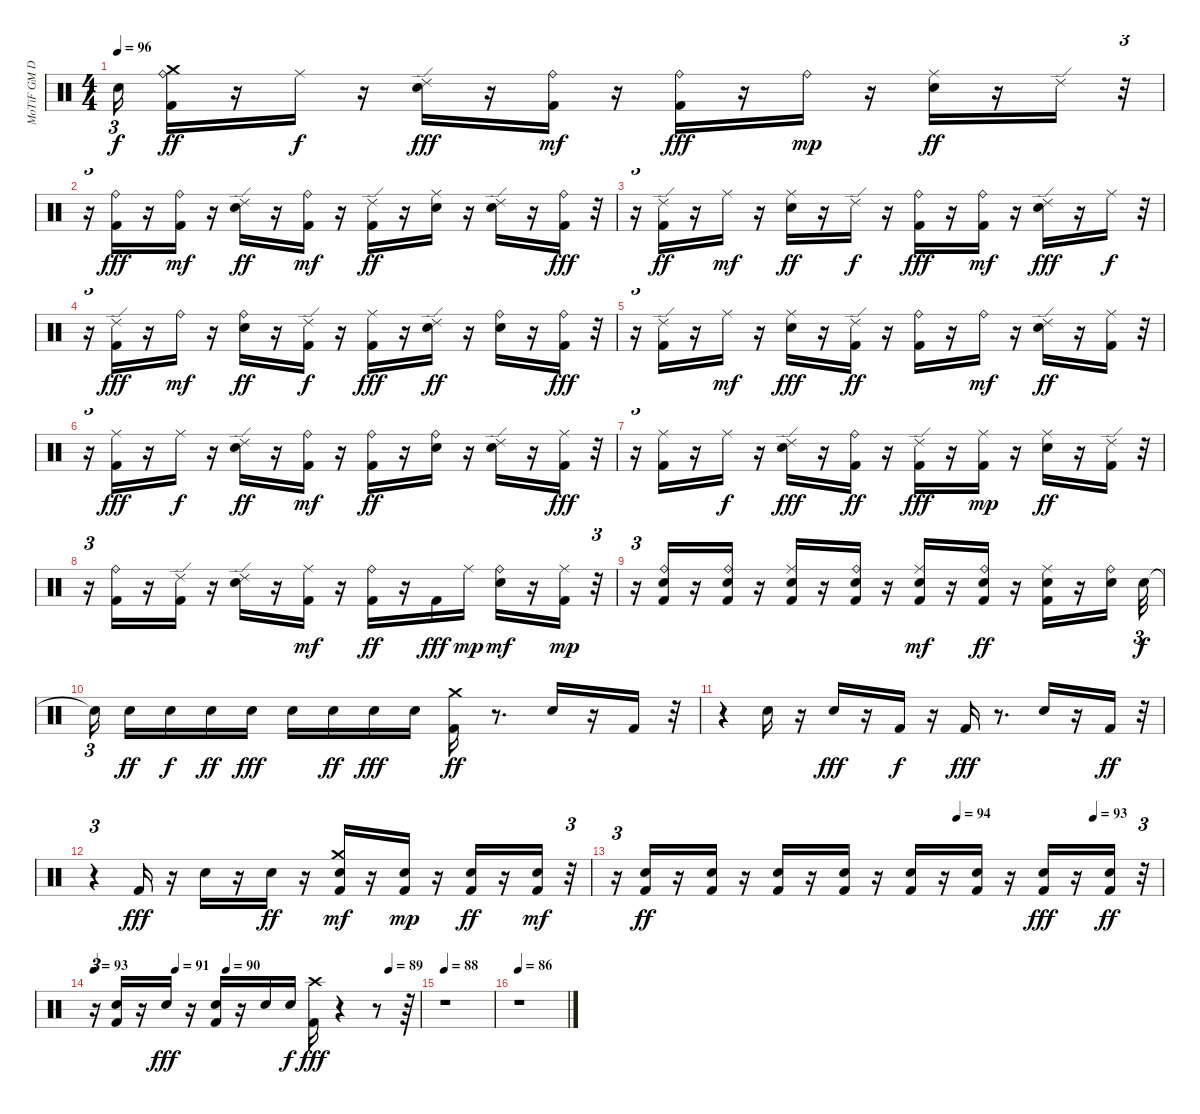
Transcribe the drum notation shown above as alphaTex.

\track ("MoTiF GM Drums" "MoTiF GM D") {instrument percussion}
\staff {score}
\articulation defaults
\ts (4 4)
\tempo 96
\clef neutral
\ks c "Snare (hit)"{t}.16{tu (3 2) dy f}
("Kick (hit) 2" "Ride (bell)" "Crash medium (hit)").16{dy ff} r.16 "Ride (middle)".16{dy f} r.16 ("Electric Snare (hit)" "Ride (edge) 2").16{dy fff} r.16 ("Kick (hit) 2" "Ride (bell)").16{dy mf} r.16 ("Kick (hit) 2" "Ride (bell)").16{dy fff} r.16 "Ride (bell)".16{dy mp} r.16 ("Electric Snare (hit)" "Ride (middle)").16{dy ff} r.16 "Ride (edge) 2".16 r.32{tu (3 2)} |
r.16{tu (3 2)} ("Kick (hit) 2" "Ride (bell)").16{dy fff} r.16 ("Kick (hit) 2" "Ride (bell)").16{dy mf} r.16 ("Electric Snare (hit)" "Ride (edge) 2").16{dy ff} r.16 ("Kick (hit) 2" "Ride (bell)").16{dy mf} r.16 ("Kick (hit) 2" "Ride (edge) 2").16{dy ff} r.16 ("Electric Snare (hit)" "Ride (middle)").16 r.16 ("Electric Snare (hit)" "Ride (edge) 2").16 r.16 ("Kick (hit) 2" "Ride (bell)").16{dy fff} r.32{tu (3 2)} |
r.16{tu (3 2)} ("Kick (hit) 2" "Ride (edge) 2").16{dy ff} r.16 "Ride (middle)".16{dy mf} r.16 ("Electric Snare (hit)" "Ride (middle)").16{dy ff} r.16 "Ride (edge) 2".16{dy f} r.16 ("Kick (hit) 2" "Ride (bell)").16{dy fff} r.16 ("Kick (hit) 2" "Ride (bell)").16{dy mf} r.16 ("Electric Snare (hit)" "Ride (edge) 2").16{dy fff} r.16 "Ride (middle)".16{dy f} r.32{tu (3 2)} |
r.16{tu (3 2)} ("Kick (hit) 2" "Ride (edge) 2").16{dy fff} r.16 "Ride (bell)".16{dy mf} r.16 ("Electric Snare (hit)" "Ride (bell)").16{dy ff} r.16 ("Kick (hit) 2" "Ride (edge) 2").16{dy f} r.16 ("Kick (hit) 2" "Ride (middle)").16{dy fff} r.16 ("Electric Snare (hit)" "Ride (edge) 2").16{dy ff} r.16 ("Electric Snare (hit)" "Ride (bell)").16 r.16 ("Kick (hit) 2" "Ride (bell)").16{dy fff} r.32{tu (3 2)} |
r.16{tu (3 2)} ("Kick (hit) 2" "Ride (edge) 2").16 r.16 "Ride (middle)".16{dy mf} r.16 ("Electric Snare (hit)" "Ride (middle)").16{dy fff} r.16 ("Kick (hit) 2" "Ride (edge) 2").16{dy ff} r.16 ("Kick (hit) 2" "Ride (bell)").16 r.16 "Ride (bell)".16{dy mf} r.16 ("Electric Snare (hit)" "Ride (edge) 2").16{dy ff} r.16 ("Kick (hit) 2" "Ride (middle)").16 r.32{tu (3 2)} |
r.16{tu (3 2)} ("Kick (hit) 2" "Ride (middle)").16{dy fff} r.16 "Ride (middle)".16{dy f} r.16 ("Electric Snare (hit)" "Ride (edge) 2").16{dy ff} r.16 ("Kick (hit) 2" "Ride (bell)").16{dy mf} r.16 ("Kick (hit) 2" "Ride (bell)").16{dy ff} r.16 ("Electric Snare (hit)" "Ride (bell)").16 r.16 ("Electric Snare (hit)" "Ride (edge) 2").16 r.16 ("Kick (hit) 2" "Ride (middle)").16{dy fff} r.32{tu (3 2)} |
r.16{tu (3 2)} ("Kick (hit) 2" "Ride (middle)").16 r.16 "Ride (middle)".16{dy f} r.16 ("Electric Snare (hit)" "Ride (edge) 2").16{dy fff} r.16 ("Kick (hit) 2" "Ride (bell)").16{dy ff} r.16 ("Kick (hit) 2" "Ride (edge) 2").16{dy fff} r.16 ("Kick (hit) 2" "Ride (middle)").16{dy mp} r.16 ("Electric Snare (hit)" "Ride (middle)").16{dy ff} r.16 ("Kick (hit) 2" "Ride (edge) 2").16 r.32{tu (3 2)} |
r.16{tu (3 2)} ("Kick (hit) 2" "Ride (bell)").16 r.16 ("Kick (hit) 2" "Ride (edge) 2").16 r.16 ("Electric Snare (hit)" "Ride (edge) 2").16 r.16 ("Kick (hit) 2" "Ride (middle)").16{dy mf} r.16 ("Kick (hit) 2" "Ride (bell)").16{dy ff} r.16 "Kick (hit) 2".16{dy fff} "Ride (middle)".16{dy mp} ("Electric Snare (hit)" "Ride (bell)").16{dy mf} r.16 ("Kick (hit) 2" "Ride (middle)").16{dy mp} r.32{tu (3 2)} |
r.16{tu (3 2)} ("Kick (hit) 2" "Electric Snare (hit)" "Ride (bell)").16 r.16 ("Kick (hit) 2" "Electric Snare (hit)" "Ride (bell)").16 r.16 ("Kick (hit) 2" "Electric Snare (hit)" "Ride (middle)").16 r.16 ("Kick (hit) 2" "Electric Snare (hit)" "Ride (bell)").16 r.16 ("Kick (hit) 2" "Electric Snare (hit)" "Ride (middle)").16{dy mf} r.16 ("Kick (hit) 2" "Electric Snare (hit)" "Ride (bell)").16{dy ff} r.16 ("Kick (hit) 2" "Electric Snare (hit)" "Ride (middle)").16 r.16 ("Electric Snare (hit)" "Ride (bell)").16 "Electric Snare (hit)".32{tu (3 2) dy f} |
"Snare (hit)"{t}.16{tu (3 2)} "Electric Snare (hit)".16{dy ff} "Electric Snare (hit)".16{dy f} "Electric Snare (hit)".16{dy ff} "Electric Snare (hit)".16{dy fff} "Electric Snare (hit)".16 "Electric Snare (hit)".16{dy ff} "Electric Snare (hit)".16{dy fff} "Electric Snare (hit)".16 ("Kick (hit) 2" "Crash medium (hit)").16{dy ff} r.8{d} "Electric Snare (hit)".16 r.16 "Kick (hit) 2".16 r.32{tu (3 2)} |
r.4{tu (3 2)} "Electric Snare (hit)".16 r.16 "Electric Snare (hit)".16{dy fff} r.16 "Kick (hit) 2".16{dy f} r.16 "Kick (hit) 2".16{dy fff} r.8{d} "Electric Snare (hit)".16 r.16 "Kick (hit) 2".16{dy ff} r.32{tu (3 2)} |
r.4{tu (3 2)} "Kick (hit) 2".16{dy fff} r.16 "Electric Snare (hit)".16 r.16 "Electric Snare (hit)".16{dy ff} r.16 ("Kick (hit) 2" "Electric Snare (hit)" "Crash medium (hit)").16{dy mf} r.16 ("Kick (hit) 2" "Electric Snare (hit)").16{dy mp} r.16 ("Kick (hit) 2" "Electric Snare (hit)").16{dy ff} r.16 ("Kick (hit) 2" "Electric Snare (hit)").16{dy mf} r.32{tu (3 2)} |
\tempo (94 0.625)
\tempo (93 0.875)
r.16{tu (3 2)} ("Kick (hit) 2" "Electric Snare (hit)").16{dy ff} r.16 ("Kick (hit) 2" "Electric Snare (hit)").16 r.16 ("Kick (hit) 2" "Electric Snare (hit)").16 r.16 ("Kick (hit) 2" "Electric Snare (hit)").16 r.16 ("Kick (hit) 2" "Electric Snare (hit)").16 r.16 ("Kick (hit) 2" "Electric Snare (hit)").16 r.16 ("Kick (hit) 2" "Electric Snare (hit)").16{dy fff} r.16 ("Kick (hit) 2" "Electric Snare (hit)").16{dy ff} r.32{tu (3 2)} |
\tempo 93
\tempo (91 0.25)
\tempo (90 0.40625)
\tempo (89 0.90625)
r.16{tu (3 2)} ("Kick (hit) 2" "Electric Snare (hit)").16 r.16 "Electric Snare (hit)".16{dy fff} r.16 ("Kick (hit) 2" "Electric Snare (hit)").16 r.16 "Electric Snare (hit)".16 "Electric Snare (hit)".16{dy f} ("Kick (hit) 2" "Crash high (hit)").16{dy fff} r.4 r.8 r.64 |
\tempo 88
r.1 |
\tempo 86
r.1
